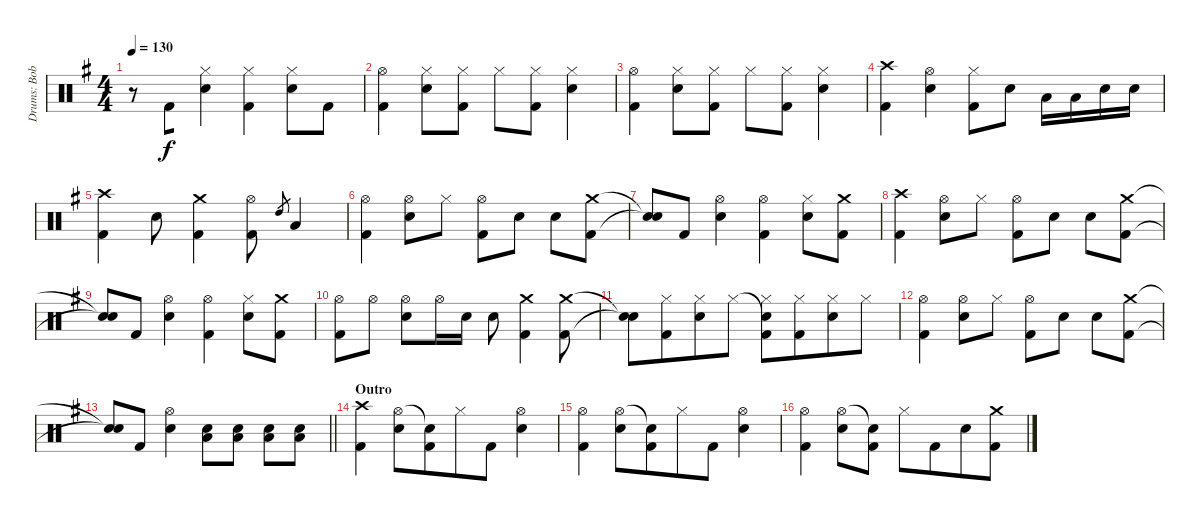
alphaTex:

\track ("Drums: Bobby" "Drums: Bob") {instrument percussion}
\staff {score}
\articulation defaults
\ts (4 4)
\tempo 130
\clef neutral
\ks g
r.8{dy f} "Kick (hit) 2".8{beam merge} ("Hi-Hat (closed)" "Snare (hit) 2").4 ("Hi-Hat (closed)" "Kick (hit) 2").4{beam merge} ("Hi-Hat (closed)" "Snare (hit) 2").8 "Kick (hit) 2".8 |
("Hi-Hat (open)" "Kick (hit) 2").4{beam merge} ("Hi-Hat (closed)" "Snare (hit) 2").8 ("Hi-Hat (closed)" "Kick (hit) 2").8 "Hi-Hat (closed)".8 ("Hi-Hat (closed)" "Kick (hit) 2").8{beam merge} ("Hi-Hat (closed)" "Snare (hit) 2").4 |
("Hi-Hat (open)" "Kick (hit) 2").4{beam merge} ("Hi-Hat (closed)" "Snare (hit) 2").8 ("Hi-Hat (closed)" "Kick (hit) 2").8 "Hi-Hat (closed)".8 ("Hi-Hat (closed)" "Kick (hit) 2").8{beam merge} ("Hi-Hat (closed)" "Snare (hit) 2").4 |
("Crash high (hit)" "Kick (hit) 2").4 ("Hi-Hat (open)" "Snare (hit) 2").4 ("Hi-Hat (closed)" "Kick (hit) 2").8 "Snare (hit) 2".8 "Low Tom (hit)".16 "Low Tom (hit)".16 "Snare (hit) 2".16 "Snare (hit) 2".16 |
("Crash high (hit)" "Kick (hit) 2").4 "Snare (hit) 2".8 ("Crash medium (hit)" "Kick (hit) 2").4 ("Hi-Hat (open)" "Kick (hit) 2").8 "High Tom (hit)".8{gr} "Low Tom (hit)".4 |
("Hi-Hat (open)" "Kick (hit) 2").4 ("Hi-Hat (open)" "Snare (hit) 2").8 "Hi-Hat (closed)".8 ("Hi-Hat (open)" "Kick (hit) 2").8 "Snare (hit) 2".8 "Snare (hit) 2".8 ("Crash medium (hit)" "Kick (hit) 2").8 |
("Snare (hit)"{t} "Snare (hit)"{t}).8 "Kick (hit) 2".8 ("Hi-Hat (open)" "Snare (hit) 2").4 ("Hi-Hat (open)" "Kick (hit) 2").4 ("Hi-Hat (closed)" "Snare (hit) 2").8 ("Crash medium (hit)" "Kick (hit) 2").8 |
("Crash high (hit)" "Kick (hit) 2").4 ("Hi-Hat (open)" "Snare (hit) 2").8 "Hi-Hat (closed)".8 ("Hi-Hat (open)" "Kick (hit) 2").8 "Snare (hit) 2".8 "Snare (hit) 2".8 ("Crash medium (hit)" "Kick (hit) 2").8 |
("Snare (hit)"{t} "Snare (hit)"{t}).8 "Kick (hit) 2".8 ("Hi-Hat (open)" "Snare (hit) 2").4 ("Hi-Hat (open)" "Kick (hit) 2").4 ("Hi-Hat (closed)" "Snare (hit) 2").8 ("Crash medium (hit)" "Kick (hit) 2").8 |
("Hi-Hat (open)" "Kick (hit) 2").8 "Hi-Hat (open)".8 ("Hi-Hat (open)" "Snare (hit) 2").8 "Hi-Hat (open)".16 "Snare (hit) 2".16 "Snare (hit) 2".8 ("Crash medium (hit)" "Kick (hit) 2").4 ("Crash medium (hit)" "Kick (hit) 2").8 |
("Snare (hit)"{t} "Snare (hit)"{t}).8 ("Hi-Hat (closed)" "Kick (hit) 2").8{beam merge} ("Hi-Hat (closed)" "Snare (hit) 2").8 "Hi-Hat (closed)".8 ("Snare (hit)"{t} "Hi-Hat (closed)" "Kick (hit) 2").8 ("Hi-Hat (closed)" "Kick (hit) 2").8{beam merge} ("Hi-Hat (closed)" "Snare (hit) 2").8 "Hi-Hat (closed)".8 |
("Hi-Hat (open)" "Kick (hit) 2").4 ("Hi-Hat (open)" "Snare (hit) 2").8 "Hi-Hat (closed)".8 ("Hi-Hat (open)" "Kick (hit) 2").8 "Snare (hit) 2".8 "Snare (hit) 2".8 ("Crash medium (hit)" "Kick (hit) 2").8 |
\barLineRight lightlight
("Snare (hit)"{t} "Snare (hit)"{t}).8 "Kick (hit) 2".8 ("Hi-Hat (open)" "Snare (hit) 2").4 ("Snare (hit) 2" "Low Tom (hit)").8 ("Snare (hit) 2" "Low Tom (hit)").8 ("Snare (hit) 2" "Low Tom (hit)").8 ("Snare (hit) 2" "Low Tom (hit)").8 |
\section ("" "Outro")
("Crash high (hit)" "Kick (hit) 2").4 ("Hi-Hat (open)" "Snare (hit) 2").8 ("Snare (hit)"{t} "Kick (hit) 2").8{beam merge} "Hi-Hat (closed)".8 "Kick (hit) 2".8 ("Hi-Hat (open)" "Snare (hit) 2").4 |
("Hi-Hat (open)" "Kick (hit) 2").4 ("Hi-Hat (open)" "Snare (hit) 2").8 ("Snare (hit)"{t} "Kick (hit) 2").8{beam merge} "Hi-Hat (closed)".8 "Kick (hit) 2".8 ("Hi-Hat (open)" "Snare (hit) 2").4 |
("Hi-Hat (open)" "Kick (hit) 2").4 ("Hi-Hat (open)" "Snare (hit) 2").8 ("Snare (hit)"{t} "Kick (hit) 2").8{beam split} "Hi-Hat (closed)".8 "Kick (hit) 2".8{beam merge} "Snare (hit) 2".8 ("Crash medium (hit)" "Kick (hit) 2").8
